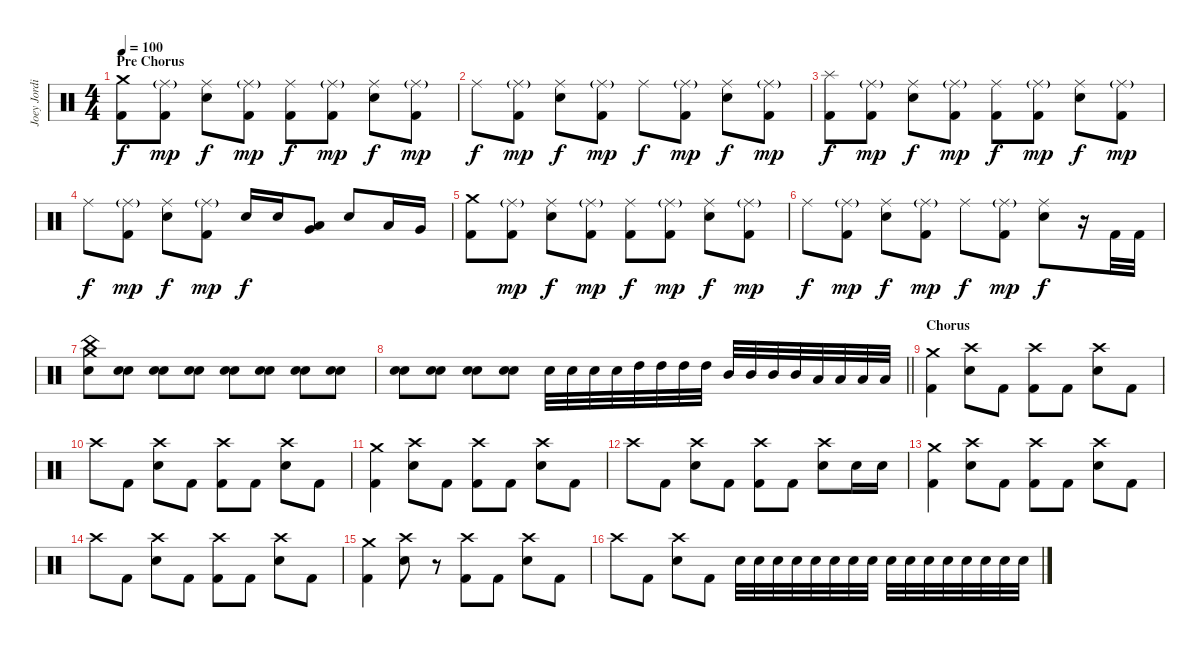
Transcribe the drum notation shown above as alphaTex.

\track ("Joey Jordison" "Joey Jordi") {instrument percussion}
\staff {score}
\articulation defaults
\ts (4 4)
\section ("" "Pre Chorus")
\tempo 100
\clef neutral
\ks c
("Crash medium (hit)" "Kick (hit) 2").8{dy f} ("Ride (middle)"{g} "Kick (hit) 2").8{dy mp} ("Ride (middle)" "Electric Snare (hit)").8{dy f} ("Ride (middle)"{g} "Kick (hit) 2").8{dy mp} ("Ride (middle)" "Kick (hit) 2").8{dy f} ("Ride (middle)"{g} "Kick (hit) 2").8{dy mp} ("Ride (middle)" "Electric Snare (hit)").8{dy f} ("Ride (middle)"{g} "Kick (hit) 2").8{dy mp} |
"Ride (middle)".8{dy f} ("Ride (middle)"{g} "Kick (hit) 2").8{dy mp} ("Ride (middle)" "Electric Snare (hit)").8{dy f} ("Ride (middle)"{g} "Kick (hit) 2").8{dy mp} "Ride (middle)".8{dy f} ("Ride (middle)"{g} "Kick (hit) 2").8{dy mp} ("Ride (middle)" "Electric Snare (hit)").8{dy f} ("Ride (middle)"{g} "Kick (hit) 2").8{dy mp} |
("Splash (hit)" "Kick (hit) 2").8{dy f} ("Ride (middle)"{g} "Kick (hit) 2").8{dy mp} ("Ride (middle)" "Electric Snare (hit)").8{dy f} ("Ride (middle)"{g} "Kick (hit) 2").8{dy mp} ("Ride (middle)" "Kick (hit) 2").8{dy f} ("Ride (middle)"{g} "Kick (hit) 2").8{dy mp} ("Ride (middle)" "Electric Snare (hit)").8{dy f} ("Ride (middle)"{g} "Kick (hit) 2").8{dy mp} |
"Ride (middle)".8{dy f} ("Ride (middle)"{g} "Kick (hit) 2").8{dy mp} ("Ride (middle)" "Electric Snare (hit)").8{dy f} ("Ride (middle)"{g} "Kick (hit) 2").8{dy mp} "Electric Snare (hit)".16{dy f} "Electric Snare (hit)".16 ("Low Tom (hit)" "Very Low Tom (hit)").8 "Electric Snare (hit)".8 "Low Tom (hit)".16 "Very Low Tom (hit)".16 |
("Crash medium (hit)" "Kick (hit) 2").8 ("Ride (middle)"{g} "Kick (hit) 2").8{dy mp} ("Ride (middle)" "Electric Snare (hit)").8{dy f} ("Ride (middle)"{g} "Kick (hit) 2").8{dy mp} ("Ride (middle)" "Kick (hit) 2").8{dy f} ("Ride (middle)"{g} "Kick (hit) 2").8{dy mp} ("Ride (middle)" "Electric Snare (hit)").8{dy f} ("Ride (middle)"{g} "Kick (hit) 2").8{dy mp} |
"Ride (middle)".8{dy f} ("Ride (middle)"{g} "Kick (hit) 2").8{dy mp} ("Ride (middle)" "Electric Snare (hit)").8{dy f} ("Ride (middle)"{g} "Kick (hit) 2").8{dy mp} "Ride (middle)".8{dy f} ("Ride (middle)"{g} "Kick (hit) 2").8{dy mp} ("Ride (middle)" "Electric Snare (hit)").8{dy f} r.16 "Kick (hit) 2".32 "Kick (hit) 2".32 |
("China (hit)" "Crash medium (hit)" "Electric Snare (hit)").8 ("Electric Snare (hit)" "Electric Snare (hit)").8 ("Electric Snare (hit)" "Electric Snare (hit)").8 ("Electric Snare (hit)" "Electric Snare (hit)").8 ("Electric Snare (hit)" "Electric Snare (hit)").8 ("Electric Snare (hit)" "Electric Snare (hit)").8 ("Electric Snare (hit)" "Electric Snare (hit)").8 ("Electric Snare (hit)" "Electric Snare (hit)").8 |
\barLineRight lightlight
("Electric Snare (hit)" "Electric Snare (hit)").8 ("Electric Snare (hit)" "Electric Snare (hit)").8 ("Electric Snare (hit)" "Electric Snare (hit)").8 ("Electric Snare (hit)" "Electric Snare (hit)").8 "Electric Snare (hit)".32 "Electric Snare (hit)".32 "Electric Snare (hit)".32 "Electric Snare (hit)".32 "High Tom (hit)".32 "High Tom (hit)".32 "High Tom (hit)".32 "High Tom (hit)".32 "Mid Tom (hit)".32 "Mid Tom (hit)".32 "Mid Tom (hit)".32 "Mid Tom (hit)".32 "Low Tom (hit)".32 "Low Tom (hit)".32 "Low Tom (hit)".32 "Low Tom (hit)".32 |
\section ("" "Chorus")
("Crash medium (hit)" "Kick (hit) 2").4 ("Crash high (hit)" "Electric Snare (hit)").8 "Kick (hit) 2".8 ("Crash high (hit)" "Kick (hit) 2").8 "Kick (hit) 2".8 ("Crash high (hit)" "Electric Snare (hit)").8 "Kick (hit) 2".8 |
"Crash high (hit)".8 "Kick (hit) 2".8 ("Crash high (hit)" "Electric Snare (hit)").8 "Kick (hit) 2".8 ("Crash high (hit)" "Kick (hit) 2").8 "Kick (hit) 2".8 ("Crash high (hit)" "Electric Snare (hit)").8 "Kick (hit) 2".8 |
("Crash medium (hit)" "Kick (hit) 2").4 ("Crash high (hit)" "Electric Snare (hit)").8 "Kick (hit) 2".8 ("Crash high (hit)" "Kick (hit) 2").8 "Kick (hit) 2".8 ("Crash high (hit)" "Electric Snare (hit)").8 "Kick (hit) 2".8 |
"Crash high (hit)".8 "Kick (hit) 2".8 ("Crash high (hit)" "Electric Snare (hit)").8 "Kick (hit) 2".8 ("Crash high (hit)" "Kick (hit) 2").8 "Kick (hit) 2".8 ("Crash high (hit)" "Electric Snare (hit)").8 "Electric Snare (hit)".16 "Electric Snare (hit)".16 |
("Crash medium (hit)" "Kick (hit) 2").4 ("Crash high (hit)" "Electric Snare (hit)").8 "Kick (hit) 2".8 ("Crash high (hit)" "Kick (hit) 2").8 "Kick (hit) 2".8 ("Crash high (hit)" "Electric Snare (hit)").8 "Kick (hit) 2".8 |
"Crash high (hit)".8 "Kick (hit) 2".8 ("Crash high (hit)" "Electric Snare (hit)").8 "Kick (hit) 2".8 ("Crash high (hit)" "Kick (hit) 2").8 "Kick (hit) 2".8 ("Crash high (hit)" "Electric Snare (hit)").8 "Kick (hit) 2".8 |
("Crash medium (hit)" "Kick (hit) 2").4 ("Crash high (hit)" "Electric Snare (hit)").8 r.8 ("Crash high (hit)" "Kick (hit) 2").8 "Kick (hit) 2".8 ("Crash high (hit)" "Electric Snare (hit)").8 "Kick (hit) 2".8 |
"Crash high (hit)".8 "Kick (hit) 2".8 ("Crash high (hit)" "Electric Snare (hit)").8 "Kick (hit) 2".8 "Electric Snare (hit)".32 "Electric Snare (hit)".32 "Electric Snare (hit)".32 "Electric Snare (hit)".32 "Electric Snare (hit)".32 "Electric Snare (hit)".32 "Electric Snare (hit)".32 "Electric Snare (hit)".32 "Electric Snare (hit)".32 "Electric Snare (hit)".32 "Electric Snare (hit)".32 "Electric Snare (hit)".32 "Electric Snare (hit)".32 "Electric Snare (hit)".32 "Electric Snare (hit)".32 "Electric Snare (hit)".32
